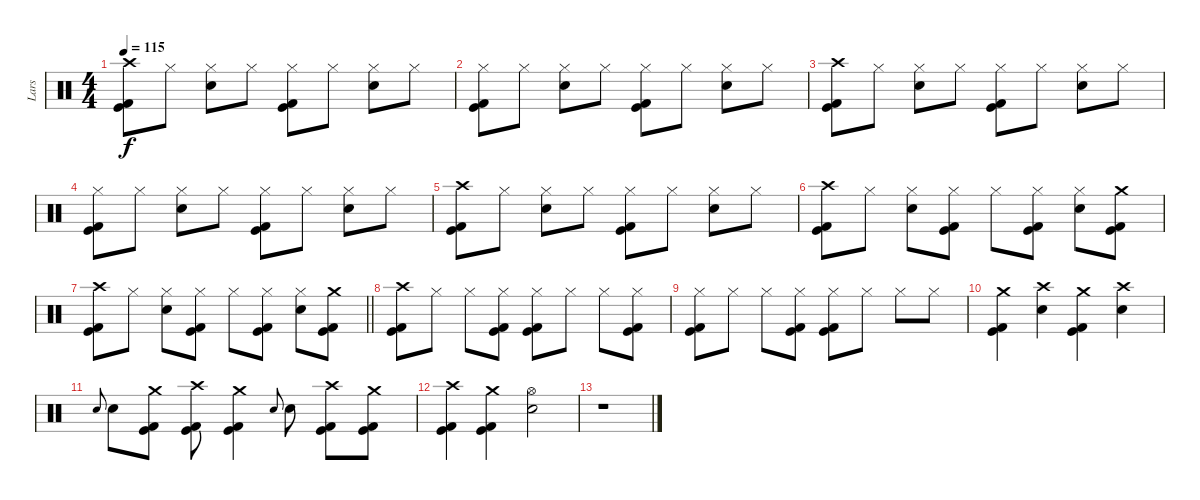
\track ("Lars" "Lars") {instrument percussion}
\staff {score}
\articulation defaults
\ts (4 4)
\tempo 115
\clef neutral
\ks c
("Crash high (hit)" "Kick (hit)" "Kick (hit) 2").8{dy f} "Hi-Hat (closed)".8 ("Hi-Hat (closed)" "Electric Snare (hit)").8 "Hi-Hat (closed)".8 ("Hi-Hat (closed)" "Kick (hit)" "Kick (hit) 2").8 "Hi-Hat (closed)".8 ("Hi-Hat (closed)" "Electric Snare (hit)").8 "Hi-Hat (closed)".8 |
("Hi-Hat (closed)" "Kick (hit)" "Kick (hit) 2").8 "Hi-Hat (closed)".8 ("Hi-Hat (closed)" "Electric Snare (hit)").8 "Hi-Hat (closed)".8 ("Hi-Hat (closed)" "Kick (hit)" "Kick (hit) 2").8 "Hi-Hat (closed)".8 ("Hi-Hat (closed)" "Electric Snare (hit)").8 "Hi-Hat (closed)".8 |
("Crash high (hit)" "Kick (hit)" "Kick (hit) 2").8 "Hi-Hat (closed)".8 ("Hi-Hat (closed)" "Electric Snare (hit)").8 "Hi-Hat (closed)".8 ("Hi-Hat (closed)" "Kick (hit)" "Kick (hit) 2").8 "Hi-Hat (closed)".8 ("Hi-Hat (closed)" "Electric Snare (hit)").8 "Hi-Hat (closed)".8 |
("Hi-Hat (closed)" "Kick (hit)" "Kick (hit) 2").8 "Hi-Hat (closed)".8 ("Hi-Hat (closed)" "Electric Snare (hit)").8 "Hi-Hat (closed)".8 ("Hi-Hat (closed)" "Kick (hit)" "Kick (hit) 2").8 "Hi-Hat (closed)".8 ("Hi-Hat (closed)" "Electric Snare (hit)").8 "Hi-Hat (closed)".8 |
("Crash high (hit)" "Kick (hit)" "Kick (hit) 2").8 "Hi-Hat (closed)".8 ("Hi-Hat (closed)" "Electric Snare (hit)").8 "Hi-Hat (closed)".8 ("Hi-Hat (closed)" "Kick (hit)" "Kick (hit) 2").8 "Hi-Hat (closed)".8 ("Hi-Hat (closed)" "Electric Snare (hit)").8 "Hi-Hat (closed)".8 |
("Crash high (hit)" "Kick (hit)" "Kick (hit) 2").8 "Hi-Hat (closed)".8 ("Hi-Hat (closed)" "Electric Snare (hit)").8 ("Hi-Hat (closed)" "Kick (hit)" "Kick (hit) 2").8 "Hi-Hat (closed)".8 ("Hi-Hat (closed)" "Kick (hit)" "Kick (hit) 2").8 ("Hi-Hat (closed)" "Electric Snare (hit)").8 ("Crash medium (hit)" "Kick (hit)" "Kick (hit) 2").8 |
\barLineRight lightlight
("Crash high (hit)" "Kick (hit)" "Kick (hit) 2").8 "Hi-Hat (closed)".8 ("Hi-Hat (closed)" "Electric Snare (hit)").8 ("Hi-Hat (closed)" "Kick (hit)" "Kick (hit) 2").8 "Hi-Hat (closed)".8 ("Hi-Hat (closed)" "Kick (hit)" "Kick (hit) 2").8 ("Hi-Hat (closed)" "Electric Snare (hit)").8 ("Crash medium (hit)" "Kick (hit)" "Kick (hit) 2").8 |
\section ("" "")
("Crash high (hit)" "Kick (hit)" "Kick (hit) 2").8 "Hi-Hat (closed)".8 "Hi-Hat (closed)".8 ("Hi-Hat (closed)" "Kick (hit)" "Kick (hit) 2").8 ("Hi-Hat (closed)" "Kick (hit)" "Kick (hit) 2").8 "Hi-Hat (closed)".8 "Hi-Hat (closed)".8 ("Hi-Hat (closed)" "Kick (hit)" "Kick (hit) 2").8 |
("Hi-Hat (closed)" "Kick (hit)" "Kick (hit) 2").8 "Hi-Hat (closed)".8 "Hi-Hat (closed)".8 ("Hi-Hat (closed)" "Kick (hit)" "Kick (hit) 2").8 ("Hi-Hat (closed)" "Kick (hit)" "Kick (hit) 2").8 "Hi-Hat (closed)".8 "Hi-Hat (closed)".8 "Hi-Hat (closed)".8 |
("Crash medium (hit)" "Kick (hit)" "Kick (hit) 2").4 ("Crash high (hit)" "Electric Snare (hit)").4 ("Crash medium (hit)" "Kick (hit)" "Kick (hit) 2").4 ("Crash high (hit)" "Electric Snare (hit)").4 |
"Electric Snare (hit)".8{gr onbeat} "Electric Snare (hit)".8 ("Crash medium (hit)" "Kick (hit)" "Kick (hit) 2").8 ("Crash high (hit)" "Kick (hit)" "Kick (hit) 2").8 ("Crash medium (hit)" "Kick (hit)" "Kick (hit) 2").4 "Electric Snare (hit)".8{gr onbeat} "Electric Snare (hit)".8 ("Crash high (hit)" "Kick (hit)" "Kick (hit) 2").8 ("Crash medium (hit)" "Kick (hit)" "Kick (hit) 2").8 |
("Crash high (hit)" "Kick (hit)" "Kick (hit) 2").4 ("Crash medium (hit)" "Kick (hit)" "Kick (hit) 2").4 ("Hi-Hat (open)" "Electric Snare (hit)").2 |
r.1
